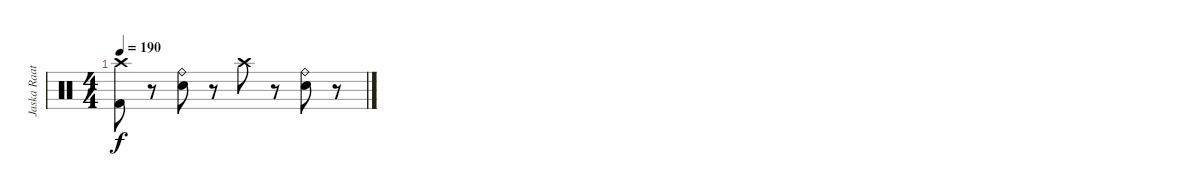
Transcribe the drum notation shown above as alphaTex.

\track ("Jaska Raatikainen" "Jaska Raat") {instrument percussion}
\staff {score}
\articulation defaults
\ts (4 4)
\tempo 190
\clef neutral
\ks c
("Crash high (hit)" "Kick (hit) 2").8{dy f} r.8 ("Ride (bell)" "Snare (hit) 2").8 r.8 "Crash high (hit)".8 r.8 ("Ride (bell)" "Snare (hit) 2").8 r.8
